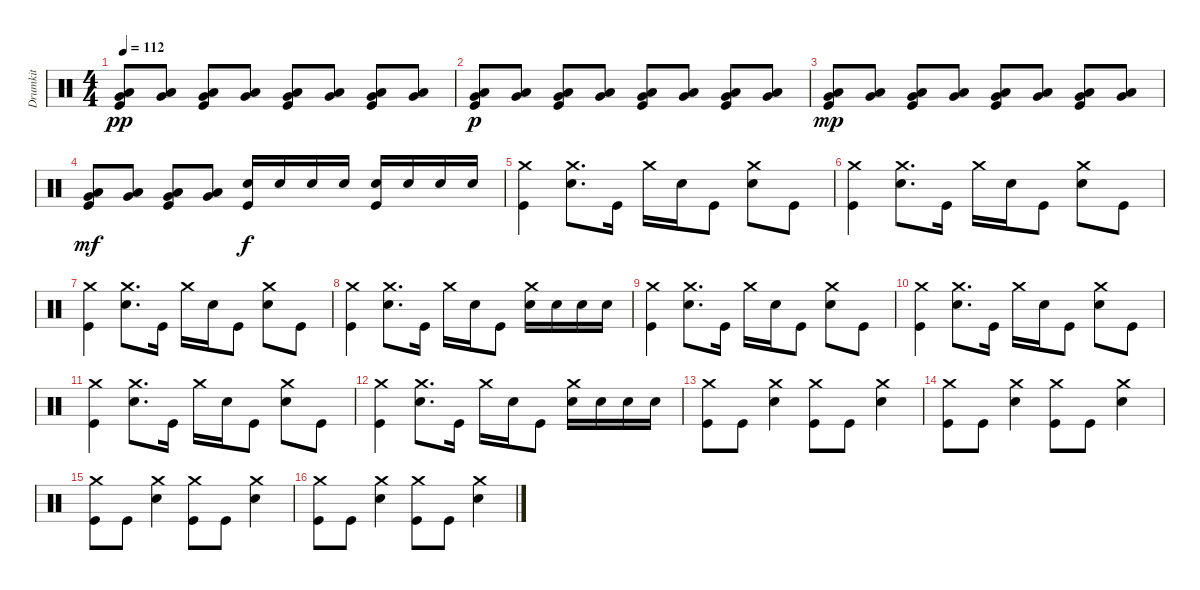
\track ("Drumkit" "Drumkit") {instrument percussion}
\staff {score}
\articulation defaults
\ts (4 4)
\tempo 112
\clef neutral
\ks c
("Very Low Tom (hit)" "Low Tom (hit)" "Kick (hit)").8{dy pp} ("Very Low Tom (hit)" "Low Tom (hit)").8 ("Very Low Tom (hit)" "Low Tom (hit)" "Kick (hit)").8 ("Very Low Tom (hit)" "Low Tom (hit)").8 ("Very Low Tom (hit)" "Low Tom (hit)" "Kick (hit)").8 ("Very Low Tom (hit)" "Low Tom (hit)").8 ("Very Low Tom (hit)" "Low Tom (hit)" "Kick (hit)").8 ("Very Low Tom (hit)" "Low Tom (hit)").8 |
("Very Low Tom (hit)" "Low Tom (hit)" "Kick (hit)").8{dy p} ("Very Low Tom (hit)" "Low Tom (hit)").8 ("Very Low Tom (hit)" "Low Tom (hit)" "Kick (hit)").8 ("Very Low Tom (hit)" "Low Tom (hit)").8 ("Very Low Tom (hit)" "Low Tom (hit)" "Kick (hit)").8 ("Very Low Tom (hit)" "Low Tom (hit)").8 ("Very Low Tom (hit)" "Low Tom (hit)" "Kick (hit)").8 ("Very Low Tom (hit)" "Low Tom (hit)").8 |
("Very Low Tom (hit)" "Low Tom (hit)" "Kick (hit)").8{dy mp} ("Very Low Tom (hit)" "Low Tom (hit)").8 ("Very Low Tom (hit)" "Low Tom (hit)" "Kick (hit)").8 ("Very Low Tom (hit)" "Low Tom (hit)").8 ("Very Low Tom (hit)" "Low Tom (hit)" "Kick (hit)").8 ("Very Low Tom (hit)" "Low Tom (hit)").8 ("Very Low Tom (hit)" "Low Tom (hit)" "Kick (hit)").8 ("Very Low Tom (hit)" "Low Tom (hit)").8 |
("Very Low Tom (hit)" "Low Tom (hit)" "Kick (hit)").8{dy mf} ("Very Low Tom (hit)" "Low Tom (hit)").8 ("Very Low Tom (hit)" "Low Tom (hit)" "Kick (hit)").8 ("Very Low Tom (hit)" "Low Tom (hit)").8 ("Snare (hit) 2" "Kick (hit)").16{dy f} "Snare (hit) 2".16 "Snare (hit) 2".16 "Snare (hit) 2".16 ("Snare (hit) 2" "Kick (hit)").16 "Snare (hit) 2".16 "Snare (hit) 2".16 "Snare (hit) 2".16 |
("Crash medium (hit)" "Kick (hit)").4 ("Crash medium (hit)" "Snare (hit) 2").8{d} "Kick (hit)".16 "Crash medium (hit)".16 "Snare (hit) 2".16 "Kick (hit)".8 ("Crash medium (hit)" "Snare (hit) 2").8 "Kick (hit)".8 |
("Crash medium (hit)" "Kick (hit)").4 ("Crash medium (hit)" "Snare (hit) 2").8{d} "Kick (hit)".16 "Crash medium (hit)".16 "Snare (hit) 2".16 "Kick (hit)".8 ("Crash medium (hit)" "Snare (hit) 2").8 "Kick (hit)".8 |
("Crash medium (hit)" "Kick (hit)").4 ("Crash medium (hit)" "Snare (hit) 2").8{d} "Kick (hit)".16 "Crash medium (hit)".16 "Snare (hit) 2".16 "Kick (hit)".8 ("Crash medium (hit)" "Snare (hit) 2").8 "Kick (hit)".8 |
("Crash medium (hit)" "Kick (hit)").4 ("Crash medium (hit)" "Snare (hit) 2").8{d} "Kick (hit)".16 "Crash medium (hit)".16 "Snare (hit) 2".16 "Kick (hit)".8 ("Crash medium (hit)" "Snare (hit) 2").16 "Snare (hit) 2".16 "Snare (hit) 2".16 "Snare (hit) 2".16 |
("Crash medium (hit)" "Kick (hit)").4 ("Crash medium (hit)" "Snare (hit) 2").8{d} "Kick (hit)".16 "Crash medium (hit)".16 "Snare (hit) 2".16 "Kick (hit)".8 ("Crash medium (hit)" "Snare (hit) 2").8 "Kick (hit)".8 |
("Crash medium (hit)" "Kick (hit)").4 ("Crash medium (hit)" "Snare (hit) 2").8{d} "Kick (hit)".16 "Crash medium (hit)".16 "Snare (hit) 2".16 "Kick (hit)".8 ("Crash medium (hit)" "Snare (hit) 2").8 "Kick (hit)".8 |
("Crash medium (hit)" "Kick (hit)").4 ("Crash medium (hit)" "Snare (hit) 2").8{d} "Kick (hit)".16 "Crash medium (hit)".16 "Snare (hit) 2".16 "Kick (hit)".8 ("Crash medium (hit)" "Snare (hit) 2").8 "Kick (hit)".8 |
("Crash medium (hit)" "Kick (hit)").4 ("Crash medium (hit)" "Snare (hit) 2").8{d} "Kick (hit)".16 "Crash medium (hit)".16 "Snare (hit) 2".16 "Kick (hit)".8 ("Crash medium (hit)" "Snare (hit) 2").16 "Snare (hit) 2".16 "Snare (hit) 2".16 "Snare (hit) 2".16 |
("Crash medium (hit)" "Kick (hit)").8 "Kick (hit)".8 ("Crash medium (hit)" "Snare (hit) 2").4 ("Crash medium (hit)" "Kick (hit)").8 "Kick (hit)".8 ("Crash medium (hit)" "Snare (hit) 2").4 |
("Crash medium (hit)" "Kick (hit)").8 "Kick (hit)".8 ("Crash medium (hit)" "Snare (hit) 2").4 ("Crash medium (hit)" "Kick (hit)").8 "Kick (hit)".8 ("Crash medium (hit)" "Snare (hit) 2").4 |
("Crash medium (hit)" "Kick (hit)").8 "Kick (hit)".8 ("Crash medium (hit)" "Snare (hit) 2").4 ("Crash medium (hit)" "Kick (hit)").8 "Kick (hit)".8 ("Crash medium (hit)" "Snare (hit) 2").4 |
("Crash medium (hit)" "Kick (hit)").8 "Kick (hit)".8 ("Crash medium (hit)" "Snare (hit) 2").4 ("Crash medium (hit)" "Kick (hit)").8 "Kick (hit)".8 ("Crash medium (hit)" "Snare (hit) 2").4
